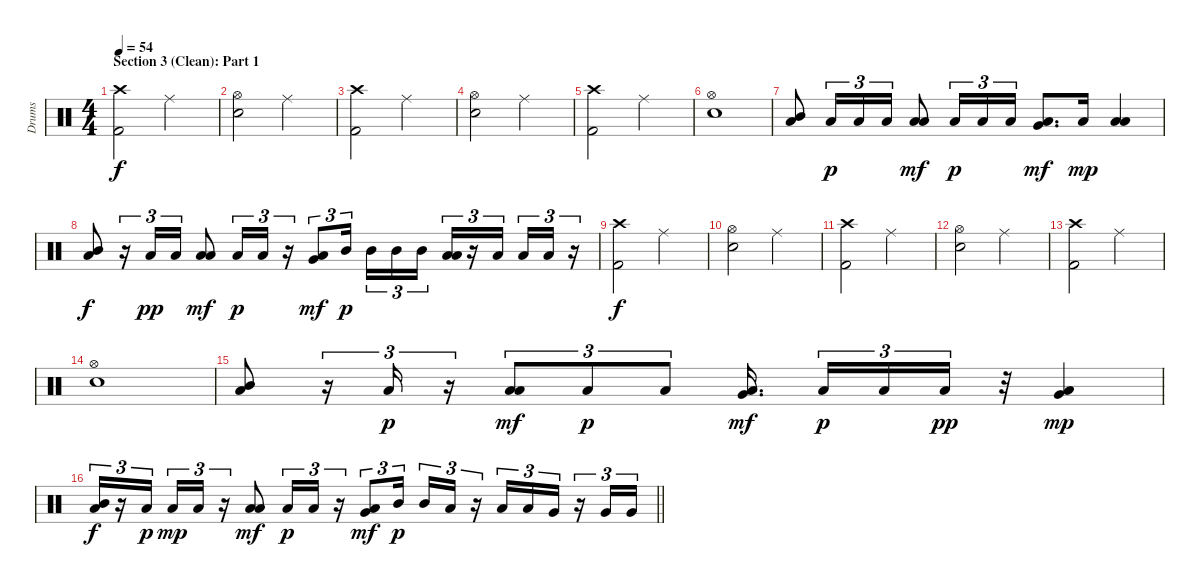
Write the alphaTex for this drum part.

\track ("Drums" "Drums") {instrument percussion}
\staff {score}
\articulation defaults
\ts (4 4)
\section ("" "Section 3 (Clean): Part 1")
\tempo 54
\clef neutral
\ks c
("Crash high (hit)" "Kick (hit) 2").2{dy f} "Ride (middle)".2 |
("Hi-Hat (open)" "Electric Snare (hit)").2 "Ride (middle)".2 |
("Crash high (hit)" "Kick (hit) 2").2 "Ride (middle)".2 |
("Hi-Hat (open)" "Electric Snare (hit)").2 "Ride (middle)".2 |
("Crash high (hit)" "Kick (hit) 2").2 "Ride (middle)".2 |
("Hi-Hat (open)" "Electric Snare (hit)").1 |
("Mid Tom (hit)" "Low Floor Tom (hit)").8 "Low Floor Tom (hit)".16{tu (3 2) dy p} "Low Floor Tom (hit)".16{tu (3 2)} "Low Floor Tom (hit)".16{tu (3 2)} ("Low Tom (hit)" "Low Floor Tom (hit)").8{dy mf} "Low Floor Tom (hit)".16{tu (3 2) dy p} "Low Floor Tom (hit)".16{tu (3 2)} "Low Floor Tom (hit)".16{tu (3 2)} ("Very Low Tom (hit)" "Low Floor Tom (hit)").8{d dy mf} "Low Floor Tom (hit)".16{dy mp} ("Low Floor Tom (hit)" "Low Floor Tom (hit)").4 |
("Mid Tom (hit)" "Low Floor Tom (hit)").8{dy f} r.16{tu (3 2)} "Low Floor Tom (hit)".16{tu (3 2) dy pp} "Low Floor Tom (hit)".16{tu (3 2)} ("Low Tom (hit)" "Low Floor Tom (hit)").8{dy mf} "Low Floor Tom (hit)".16{tu (3 2) dy p} "Low Floor Tom (hit)".16{tu (3 2)} r.16{tu (3 2)} ("Very Low Tom (hit)" "Low Floor Tom (hit)").8{tu (3 2) dy mf} "Mid Tom (hit)".16{tu (3 2) dy p beam splitsecondary} "Mid Tom (hit)".16{tu (3 2)} "Mid Tom (hit)".16{tu (3 2)} "Mid Tom (hit)".16{tu (3 2)} ("Low Tom (hit)" "Low Floor Tom (hit)").16{tu (3 2)} r.16{tu (3 2)} "Low Floor Tom (hit)".16{tu (3 2) beam splitsecondary} "Low Floor Tom (hit)".16{tu (3 2)} "Low Floor Tom (hit)".16{tu (3 2)} r.16{tu (3 2)} |
("Crash high (hit)" "Kick (hit) 2").2{dy f} "Ride (middle)".2 |
("Hi-Hat (open)" "Electric Snare (hit)").2 "Ride (middle)".2 |
("Crash high (hit)" "Kick (hit) 2").2 "Ride (middle)".2 |
("Hi-Hat (open)" "Electric Snare (hit)").2 "Ride (middle)".2 |
("Crash high (hit)" "Kick (hit) 2").2 "Ride (middle)".2 |
("Hi-Hat (open)" "Electric Snare (hit)").1 |
("Mid Tom (hit)" "Low Floor Tom (hit)").8 r.16{tu (3 2)} "Low Floor Tom (hit)".16{tu (3 2) dy p} r.16{tu (3 2)} ("Low Tom (hit)" "Low Floor Tom (hit)").8{tu (3 2) dy mf} "Low Floor Tom (hit)".8{tu (3 2) dy p} "Low Floor Tom (hit)".8{tu (3 2)} ("Very Low Tom (hit)" "Low Floor Tom (hit)").16{d dy mf beam splitsecondary} "Low Floor Tom (hit)".16{tu (3 2) dy p} "Low Floor Tom (hit)".16{tu (3 2)} "Low Floor Tom (hit)".16{tu (3 2) dy pp} r.32 ("Very Low Tom (hit)" "Low Floor Tom (hit)").4{dy mp} |
\barLineRight lightlight
("Mid Tom (hit)" "Low Floor Tom (hit)").16{tu (3 2) dy f} r.16{tu (3 2)} "Low Floor Tom (hit)".16{tu (3 2) dy p beam splitsecondary} "Low Floor Tom (hit)".16{tu (3 2) dy mp} "Low Floor Tom (hit)".16{tu (3 2)} r.16{tu (3 2)} ("Low Tom (hit)" "Low Floor Tom (hit)").8{dy mf} "Low Floor Tom (hit)".16{tu (3 2) dy p} "Low Floor Tom (hit)".16{tu (3 2)} r.16{tu (3 2)} ("Very Low Tom (hit)" "Low Floor Tom (hit)").8{tu (3 2) dy mf} "Mid Tom (hit)".16{tu (3 2) dy p beam splitsecondary} "Mid Tom (hit)".16{tu (3 2)} "Low Tom (hit)".16{tu (3 2)} r.16{tu (3 2)} "Low Tom (hit)".16{tu (3 2)} "Low Tom (hit)".16{tu (3 2)} "Very Low Tom (hit)".16{tu (3 2)} r.16{tu (3 2)} "Very Low Tom (hit)".16{tu (3 2)} "Very Low Tom (hit)".16{tu (3 2)}
